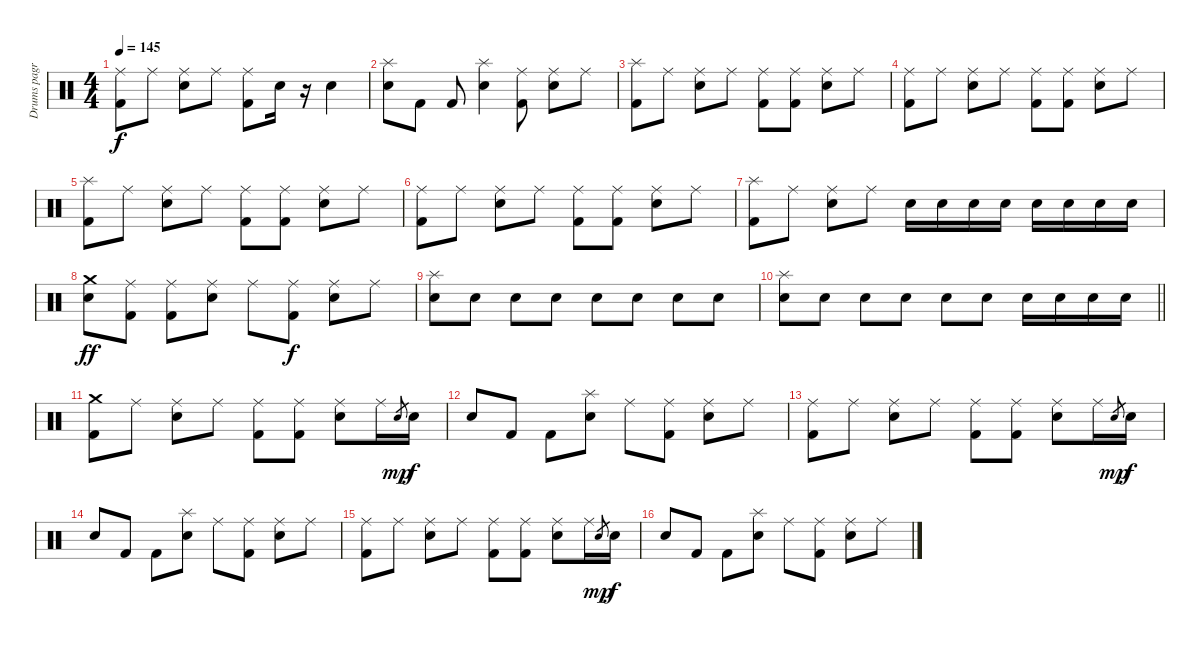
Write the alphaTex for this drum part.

\track ("Drums pagr" "Drums pagr") {instrument percussion}
\staff {score}
\articulation defaults
\ts (4 4)
\tempo 145
\clef neutral
\ks c
("Ride (middle)" "Kick (hit) 2").8{dy f} "Ride (middle)".8 ("Ride (middle)" "Snare (hit) 2").8 "Ride (middle)".8 ("Ride (middle)" "Kick (hit) 2").8 "Snare (hit) 2".16 r.16 "Snare (hit) 2".4 |
("Splash (hit)" "Snare (hit) 2").8 "Kick (hit) 2".8 "Kick (hit) 2".8 ("Splash (hit)" "Snare (hit) 2").4 ("Ride (middle)" "Kick (hit) 2").8 ("Ride (middle)" "Snare (hit) 2").8 "Ride (middle)".8 |
("Splash (hit)" "Kick (hit) 2").8 "Ride (middle)".8 ("Ride (middle)" "Snare (hit) 2").8 "Ride (middle)".8 ("Ride (middle)" "Kick (hit) 2").8 ("Ride (middle)" "Kick (hit) 2").8 ("Ride (middle)" "Snare (hit) 2").8 "Ride (middle)".8 |
("Ride (middle)" "Kick (hit) 2").8 "Ride (middle)".8 ("Ride (middle)" "Snare (hit) 2").8 "Ride (middle)".8 ("Ride (middle)" "Kick (hit) 2").8 ("Ride (middle)" "Kick (hit) 2").8 ("Ride (middle)" "Snare (hit) 2").8 "Ride (middle)".8 |
("Splash (hit)" "Kick (hit) 2").8 "Ride (middle)".8 ("Ride (middle)" "Snare (hit) 2").8 "Ride (middle)".8 ("Ride (middle)" "Kick (hit) 2").8 ("Ride (middle)" "Kick (hit) 2").8 ("Ride (middle)" "Snare (hit) 2").8 "Ride (middle)".8 |
("Ride (middle)" "Kick (hit) 2").8 "Ride (middle)".8 ("Ride (middle)" "Snare (hit) 2").8 "Ride (middle)".8 ("Ride (middle)" "Kick (hit) 2").8 ("Ride (middle)" "Kick (hit) 2").8 ("Ride (middle)" "Snare (hit) 2").8 "Ride (middle)".8 |
("Splash (hit)" "Kick (hit) 2").8 "Ride (middle)".8 ("Ride (middle)" "Snare (hit) 2").8 "Ride (middle)".8 "Snare (hit) 2".16 "Snare (hit) 2".16 "Snare (hit) 2".16 "Snare (hit) 2".16 "Snare (hit) 2".16 "Snare (hit) 2".16 "Snare (hit) 2".16 "Snare (hit) 2".16 |
("Crash medium (hit)" "Snare (hit) 2").8{dy ff} ("Ride (middle)" "Kick (hit) 2").8 ("Ride (middle)" "Kick (hit) 2").8 ("Ride (middle)" "Snare (hit) 2").8 "Ride (middle)".8 ("Ride (middle)" "Kick (hit) 2").8{dy f} ("Ride (middle)" "Snare (hit) 2").8 "Ride (middle)".8 |
("Splash (hit)" "Snare (hit) 2").8 "Snare (hit) 2".8 "Snare (hit) 2".8 "Snare (hit) 2".8 "Snare (hit) 2".8 "Snare (hit) 2".8 "Snare (hit) 2".8 "Snare (hit) 2".8 |
\barLineRight lightlight
("Splash (hit)" "Snare (hit) 2").8 "Snare (hit) 2".8 "Snare (hit) 2".8 "Snare (hit) 2".8 "Snare (hit) 2".8 "Snare (hit) 2".8 "Snare (hit) 2".16 "Snare (hit) 2".16 "Snare (hit) 2".16 "Snare (hit) 2".16 |
("Crash medium (hit)" "Kick (hit) 2").8 "Ride (middle)".8 ("Ride (middle)" "Snare (hit) 2").8 "Ride (middle)".8 ("Ride (middle)" "Kick (hit) 2").8 ("Ride (middle)" "Kick (hit) 2").8 ("Ride (middle)" "Snare (hit) 2").8 "Ride (middle)".16 "Snare (hit) 2".8{gr dy mp} "Snare (hit) 2".16{dy f} |
"Snare (hit) 2".8 "Kick (hit) 2".8 "Kick (hit) 2".8 ("Splash (hit)" "Snare (hit) 2").8 "Ride (middle)".8 ("Ride (middle)" "Kick (hit) 2").8 ("Ride (middle)" "Snare (hit) 2").8 "Ride (middle)".8 |
("Ride (middle)" "Kick (hit) 2").8 "Ride (middle)".8 ("Ride (middle)" "Snare (hit) 2").8 "Ride (middle)".8 ("Ride (middle)" "Kick (hit) 2").8 ("Ride (middle)" "Kick (hit) 2").8 ("Ride (middle)" "Snare (hit) 2").8 "Ride (middle)".16 "Snare (hit) 2".8{gr dy mp} "Snare (hit) 2".16{dy f} |
"Snare (hit) 2".8 "Kick (hit) 2".8 "Kick (hit) 2".8 ("Splash (hit)" "Snare (hit) 2").8 "Ride (middle)".8 ("Ride (middle)" "Kick (hit) 2").8 ("Ride (middle)" "Snare (hit) 2").8 "Ride (middle)".8 |
("Ride (middle)" "Kick (hit) 2").8 "Ride (middle)".8 ("Ride (middle)" "Snare (hit) 2").8 "Ride (middle)".8 ("Ride (middle)" "Kick (hit) 2").8 ("Ride (middle)" "Kick (hit) 2").8 ("Ride (middle)" "Snare (hit) 2").8 "Ride (middle)".16 "Snare (hit) 2".8{gr dy mp} "Snare (hit) 2".16{dy f} |
"Snare (hit) 2".8 "Kick (hit) 2".8 "Kick (hit) 2".8 ("Splash (hit)" "Snare (hit) 2").8 "Ride (middle)".8 ("Ride (middle)" "Kick (hit) 2").8 ("Ride (middle)" "Snare (hit) 2").8 "Ride (middle)".8
